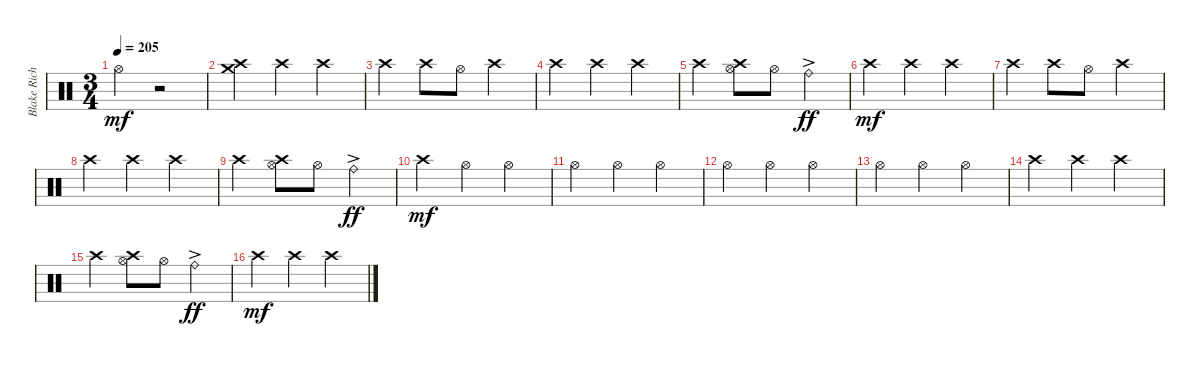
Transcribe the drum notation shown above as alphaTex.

\track ("Blake Richardson Drums" "Blake Rich") {instrument percussion}
\staff {score}
\articulation defaults
\ts (3 4)
\tempo 205
\clef neutral
\ks c "Hi-Hat (open)".4{dy mf}
r.2 |
("Crash high (hit)" "Crash medium (hit)").4 "Crash high (hit)".4 "Crash high (hit)".4 |
"Crash high (hit)".4 "Crash high (hit)".8 "Hi-Hat (open)".8 "Crash high (hit)".4 |
"Crash high (hit)".4 "Crash high (hit)".4 "Crash high (hit)".4 |
"Crash high (hit)".4 ("Crash high (hit)" "Hi-Hat (open)").8 "Hi-Hat (open)".8 "Ride (bell)"{ac}.4{dy ff} |
"Crash high (hit)".4{dy mf} "Crash high (hit)".4 "Crash high (hit)".4 |
"Crash high (hit)".4 "Crash high (hit)".8 "Hi-Hat (open)".8 "Crash high (hit)".4 |
"Crash high (hit)".4 "Crash high (hit)".4 "Crash high (hit)".4 |
"Crash high (hit)".4 ("Crash high (hit)" "Hi-Hat (open)").8 "Hi-Hat (open)".8 "Ride (bell)"{ac}.4{dy ff} |
"Crash high (hit)".4{dy mf} "Hi-Hat (open)".4 "Hi-Hat (open)".4 |
"Hi-Hat (open)".4 "Hi-Hat (open)".4 "Hi-Hat (open)".4 |
"Hi-Hat (open)".4 "Hi-Hat (open)".4 "Hi-Hat (open)".4 |
"Hi-Hat (open)".4 "Hi-Hat (open)".4 "Hi-Hat (open)".4 |
"Crash high (hit)".4 "Crash high (hit)".4 "Crash high (hit)".4 |
"Crash high (hit)".4 ("Crash high (hit)" "Hi-Hat (open)").8 "Hi-Hat (open)".8 "Ride (bell)"{ac}.4{dy ff} |
"Crash high (hit)".4{dy mf} "Crash high (hit)".4 "Crash high (hit)".4
